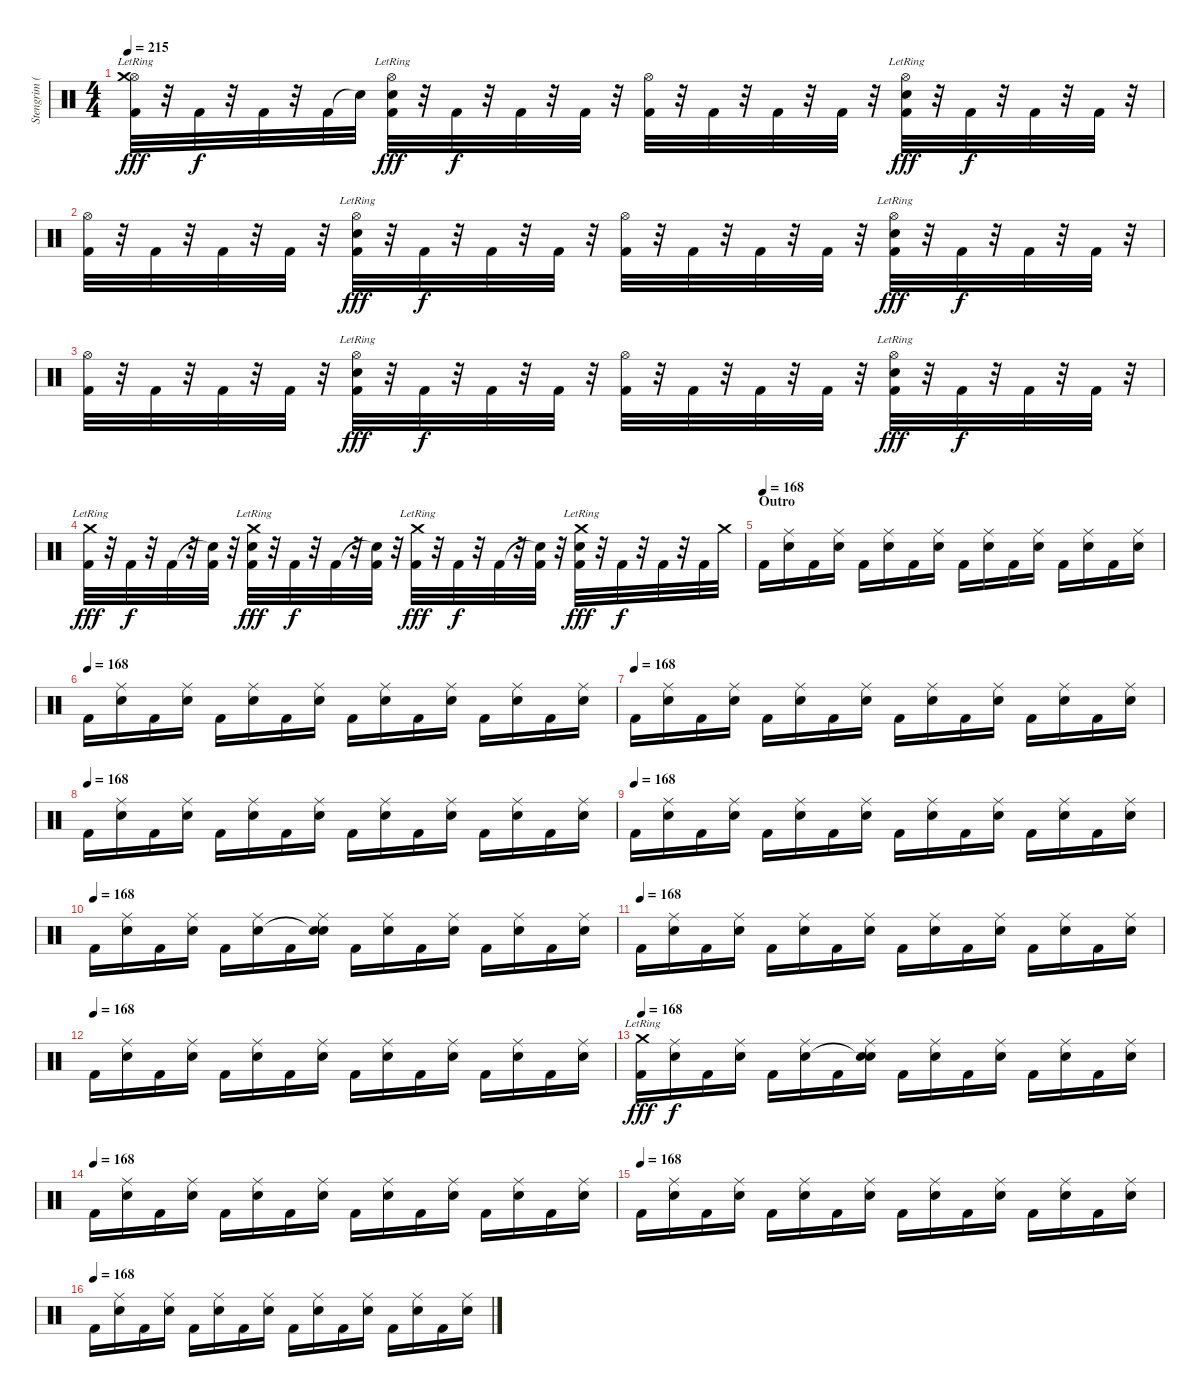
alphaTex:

\track ("Stengrim ( Batterie )" "Stengrim (") {instrument percussion}
\staff {score}
\articulation defaults
\ts (4 4)
\tempo 215
\clef neutral
\ks c
("Hi-Hat (open)" "Crash medium (hit)"{lr} "Kick (hit) 2").32{dy fff} r.32 "Kick (hit) 2".32{dy f} r.32 "Kick (hit) 2".32 r.32 "Kick (hit) 2".32 "Snare (hit)"{t}.32 ("Hi-Hat (open)" "Electric Snare (hit)"{lr} "Kick (hit) 2").32{dy fff} r.32 "Kick (hit) 2".32{dy f} r.32 "Kick (hit) 2".32 r.32 "Kick (hit) 2".32 r.32 ("Hi-Hat (open)" "Kick (hit) 2").32 r.32 "Kick (hit) 2".32 r.32 "Kick (hit) 2".32 r.32 "Kick (hit) 2".32 r.32 ("Hi-Hat (open)" "Electric Snare (hit)"{lr} "Kick (hit) 2").32{dy fff} r.32 "Kick (hit) 2".32{dy f} r.32 "Kick (hit) 2".32 r.32 "Kick (hit) 2".32 r.32 |
("Hi-Hat (open)" "Kick (hit) 2").32 r.32 "Kick (hit) 2".32 r.32 "Kick (hit) 2".32 r.32 "Kick (hit) 2".32 r.32 ("Hi-Hat (open)" "Electric Snare (hit)"{lr} "Kick (hit) 2").32{dy fff} r.32 "Kick (hit) 2".32{dy f} r.32 "Kick (hit) 2".32 r.32 "Kick (hit) 2".32 r.32 ("Hi-Hat (open)" "Kick (hit) 2").32 r.32 "Kick (hit) 2".32 r.32 "Kick (hit) 2".32 r.32 "Kick (hit) 2".32 r.32 ("Hi-Hat (open)" "Electric Snare (hit)"{lr} "Kick (hit) 2").32{dy fff} r.32 "Kick (hit) 2".32{dy f} r.32 "Kick (hit) 2".32 r.32 "Kick (hit) 2".32 r.32 |
("Hi-Hat (open)" "Kick (hit) 2").32 r.32 "Kick (hit) 2".32 r.32 "Kick (hit) 2".32 r.32 "Kick (hit) 2".32 r.32 ("Hi-Hat (open)" "Electric Snare (hit)"{lr} "Kick (hit) 2").32{dy fff} r.32 "Kick (hit) 2".32{dy f} r.32 "Kick (hit) 2".32 r.32 "Kick (hit) 2".32 r.32 ("Hi-Hat (open)" "Kick (hit) 2").32 r.32 "Kick (hit) 2".32 r.32 "Kick (hit) 2".32 r.32 "Kick (hit) 2".32 r.32 ("Hi-Hat (open)" "Electric Snare (hit)"{lr} "Kick (hit) 2").32{dy fff} r.32 "Kick (hit) 2".32{dy f} r.32 "Kick (hit) 2".32 r.32 "Kick (hit) 2".32 r.32 |
("Crash medium (hit)"{lr} "Kick (hit) 2").32{dy fff} r.32 "Kick (hit) 2".32{dy f} r.32 "Kick (hit) 2".32 r.32 ("Snare (hit)"{t} "Kick (hit) 2").32 r.32 ("Crash medium (hit)"{lr} "Electric Snare (hit)"{lr} "Kick (hit) 2").32{dy fff} r.32 "Kick (hit) 2".32{dy f} r.32 "Kick (hit) 2".32 r.32 ("Snare (hit)"{t} "Kick (hit) 2").32 r.32 ("Crash medium (hit)"{lr} "Kick (hit) 2").32{dy fff} r.32 "Kick (hit) 2".32{dy f} r.32 "Kick (hit) 2".32 r.32 ("Snare (hit)"{t} "Kick (hit) 2").32 r.32 ("Crash medium (hit)"{lr} "Electric Snare (hit)"{lr} "Kick (hit) 2").32{dy fff} r.32 "Kick (hit) 2".32{dy f} r.32 "Kick (hit) 2".32 r.32 "Kick (hit) 2".32 "Crash medium (hit)".32 |
\section ("" "Outro")
\tempo (168)
"Kick (hit) 2".16 ("Ride (middle)" "Electric Snare (hit)").16 "Kick (hit) 2".16 ("Ride (middle)" "Electric Snare (hit)").16 "Kick (hit) 2".16 ("Ride (middle)" "Electric Snare (hit)").16 "Kick (hit) 2".16 ("Ride (middle)" "Electric Snare (hit)").16 "Kick (hit) 2".16 ("Ride (middle)" "Electric Snare (hit)").16 "Kick (hit) 2".16 ("Ride (middle)" "Electric Snare (hit)").16 "Kick (hit) 2".16 ("Ride (middle)" "Electric Snare (hit)").16 "Kick (hit) 2".16 ("Ride (middle)" "Electric Snare (hit)").16 |
\tempo (168)
"Kick (hit) 2".16 ("Ride (middle)" "Electric Snare (hit)").16 "Kick (hit) 2".16 ("Ride (middle)" "Electric Snare (hit)").16 "Kick (hit) 2".16 ("Ride (middle)" "Electric Snare (hit)").16 "Kick (hit) 2".16 ("Ride (middle)" "Electric Snare (hit)").16 "Kick (hit) 2".16 ("Ride (middle)" "Electric Snare (hit)").16 "Kick (hit) 2".16 ("Ride (middle)" "Electric Snare (hit)").16 "Kick (hit) 2".16 ("Ride (middle)" "Electric Snare (hit)").16 "Kick (hit) 2".16 ("Ride (middle)" "Electric Snare (hit)").16 |
\tempo (168)
"Kick (hit) 2".16 ("Ride (middle)" "Electric Snare (hit)").16 "Kick (hit) 2".16 ("Ride (middle)" "Electric Snare (hit)").16 "Kick (hit) 2".16 ("Ride (middle)" "Electric Snare (hit)").16 "Kick (hit) 2".16 ("Ride (middle)" "Electric Snare (hit)").16 "Kick (hit) 2".16 ("Ride (middle)" "Electric Snare (hit)").16 "Kick (hit) 2".16 ("Ride (middle)" "Electric Snare (hit)").16 "Kick (hit) 2".16 ("Ride (middle)" "Electric Snare (hit)").16 "Kick (hit) 2".16 ("Ride (middle)" "Electric Snare (hit)").16 |
\tempo (168)
"Kick (hit) 2".16 ("Ride (middle)" "Electric Snare (hit)").16 "Kick (hit) 2".16 ("Ride (middle)" "Electric Snare (hit)").16 "Kick (hit) 2".16 ("Ride (middle)" "Electric Snare (hit)").16 "Kick (hit) 2".16 ("Ride (middle)" "Electric Snare (hit)").16 "Kick (hit) 2".16 ("Ride (middle)" "Electric Snare (hit)").16 "Kick (hit) 2".16 ("Ride (middle)" "Electric Snare (hit)").16 "Kick (hit) 2".16 ("Ride (middle)" "Electric Snare (hit)").16 "Kick (hit) 2".16 ("Ride (middle)" "Electric Snare (hit)").16 |
\tempo (168)
"Kick (hit) 2".16 ("Ride (middle)" "Electric Snare (hit)").16 "Kick (hit) 2".16 ("Ride (middle)" "Electric Snare (hit)").16 "Kick (hit) 2".16 ("Ride (middle)" "Electric Snare (hit)").16 "Kick (hit) 2".16 ("Ride (middle)" "Electric Snare (hit)").16 "Kick (hit) 2".16 ("Ride (middle)" "Electric Snare (hit)").16 "Kick (hit) 2".16 ("Ride (middle)" "Electric Snare (hit)").16 "Kick (hit) 2".16 ("Ride (middle)" "Electric Snare (hit)").16 "Kick (hit) 2".16 ("Ride (middle)" "Electric Snare (hit)").16 |
\tempo (168)
"Kick (hit) 2".16 ("Ride (middle)" "Electric Snare (hit)").16 "Kick (hit) 2".16 ("Ride (middle)" "Electric Snare (hit)").16 "Kick (hit) 2".16 ("Ride (middle)" "Electric Snare (hit)").16 "Kick (hit) 2".16 ("Ride (middle)" "Snare (hit)"{t} "Electric Snare (hit)").16 "Kick (hit) 2".16 ("Ride (middle)" "Electric Snare (hit)").16 "Kick (hit) 2".16 ("Ride (middle)" "Electric Snare (hit)").16 "Kick (hit) 2".16 ("Ride (middle)" "Electric Snare (hit)").16 "Kick (hit) 2".16 ("Ride (middle)" "Electric Snare (hit)").16 |
\tempo (168)
"Kick (hit) 2".16 ("Ride (middle)" "Electric Snare (hit)").16 "Kick (hit) 2".16 ("Ride (middle)" "Electric Snare (hit)").16 "Kick (hit) 2".16 ("Ride (middle)" "Electric Snare (hit)").16 "Kick (hit) 2".16 ("Ride (middle)" "Electric Snare (hit)").16 "Kick (hit) 2".16 ("Ride (middle)" "Electric Snare (hit)").16 "Kick (hit) 2".16 ("Ride (middle)" "Electric Snare (hit)").16 "Kick (hit) 2".16 ("Ride (middle)" "Electric Snare (hit)").16 "Kick (hit) 2".16 ("Ride (middle)" "Electric Snare (hit)").16 |
\tempo (168)
"Kick (hit) 2".16 ("Ride (middle)" "Electric Snare (hit)").16 "Kick (hit) 2".16 ("Ride (middle)" "Electric Snare (hit)").16 "Kick (hit) 2".16 ("Ride (middle)" "Electric Snare (hit)").16 "Kick (hit) 2".16 ("Ride (middle)" "Electric Snare (hit)").16 "Kick (hit) 2".16 ("Ride (middle)" "Electric Snare (hit)").16 "Kick (hit) 2".16 ("Ride (middle)" "Electric Snare (hit)").16 "Kick (hit) 2".16 ("Ride (middle)" "Electric Snare (hit)").16 "Kick (hit) 2".16 ("Ride (middle)" "Electric Snare (hit)").16 |
\tempo 168
("Crash medium (hit)"{lr} "Kick (hit) 2").16{dy fff} ("Ride (middle)" "Electric Snare (hit)").16{dy f} "Kick (hit) 2".16 ("Ride (middle)" "Electric Snare (hit)").16 "Kick (hit) 2".16 ("Ride (middle)" "Electric Snare (hit)").16 "Kick (hit) 2".16 ("Ride (middle)" "Snare (hit)"{t} "Electric Snare (hit)").16 "Kick (hit) 2".16 ("Ride (middle)" "Electric Snare (hit)").16 "Kick (hit) 2".16 ("Ride (middle)" "Electric Snare (hit)").16 "Kick (hit) 2".16 ("Ride (middle)" "Electric Snare (hit)").16 "Kick (hit) 2".16 ("Ride (middle)" "Electric Snare (hit)").16 |
\tempo (168)
"Kick (hit) 2".16 ("Ride (middle)" "Electric Snare (hit)").16 "Kick (hit) 2".16 ("Ride (middle)" "Electric Snare (hit)").16 "Kick (hit) 2".16 ("Ride (middle)" "Electric Snare (hit)").16 "Kick (hit) 2".16 ("Ride (middle)" "Electric Snare (hit)").16 "Kick (hit) 2".16 ("Ride (middle)" "Electric Snare (hit)").16 "Kick (hit) 2".16 ("Ride (middle)" "Electric Snare (hit)").16 "Kick (hit) 2".16 ("Ride (middle)" "Electric Snare (hit)").16 "Kick (hit) 2".16 ("Ride (middle)" "Electric Snare (hit)").16 |
\tempo (168)
"Kick (hit) 2".16 ("Ride (middle)" "Electric Snare (hit)").16 "Kick (hit) 2".16 ("Ride (middle)" "Electric Snare (hit)").16 "Kick (hit) 2".16 ("Ride (middle)" "Electric Snare (hit)").16 "Kick (hit) 2".16 ("Ride (middle)" "Electric Snare (hit)").16 "Kick (hit) 2".16 ("Ride (middle)" "Electric Snare (hit)").16 "Kick (hit) 2".16 ("Ride (middle)" "Electric Snare (hit)").16 "Kick (hit) 2".16 ("Ride (middle)" "Electric Snare (hit)").16 "Kick (hit) 2".16 ("Ride (middle)" "Electric Snare (hit)").16 |
\tempo (168)
"Kick (hit) 2".16 ("Ride (middle)" "Electric Snare (hit)").16 "Kick (hit) 2".16 ("Ride (middle)" "Electric Snare (hit)").16 "Kick (hit) 2".16 ("Ride (middle)" "Electric Snare (hit)").16 "Kick (hit) 2".16 ("Ride (middle)" "Electric Snare (hit)").16 "Kick (hit) 2".16 ("Ride (middle)" "Electric Snare (hit)").16 "Kick (hit) 2".16 ("Ride (middle)" "Electric Snare (hit)").16 "Kick (hit) 2".16 ("Ride (middle)" "Electric Snare (hit)").16 "Kick (hit) 2".16 ("Ride (middle)" "Electric Snare (hit)").16
